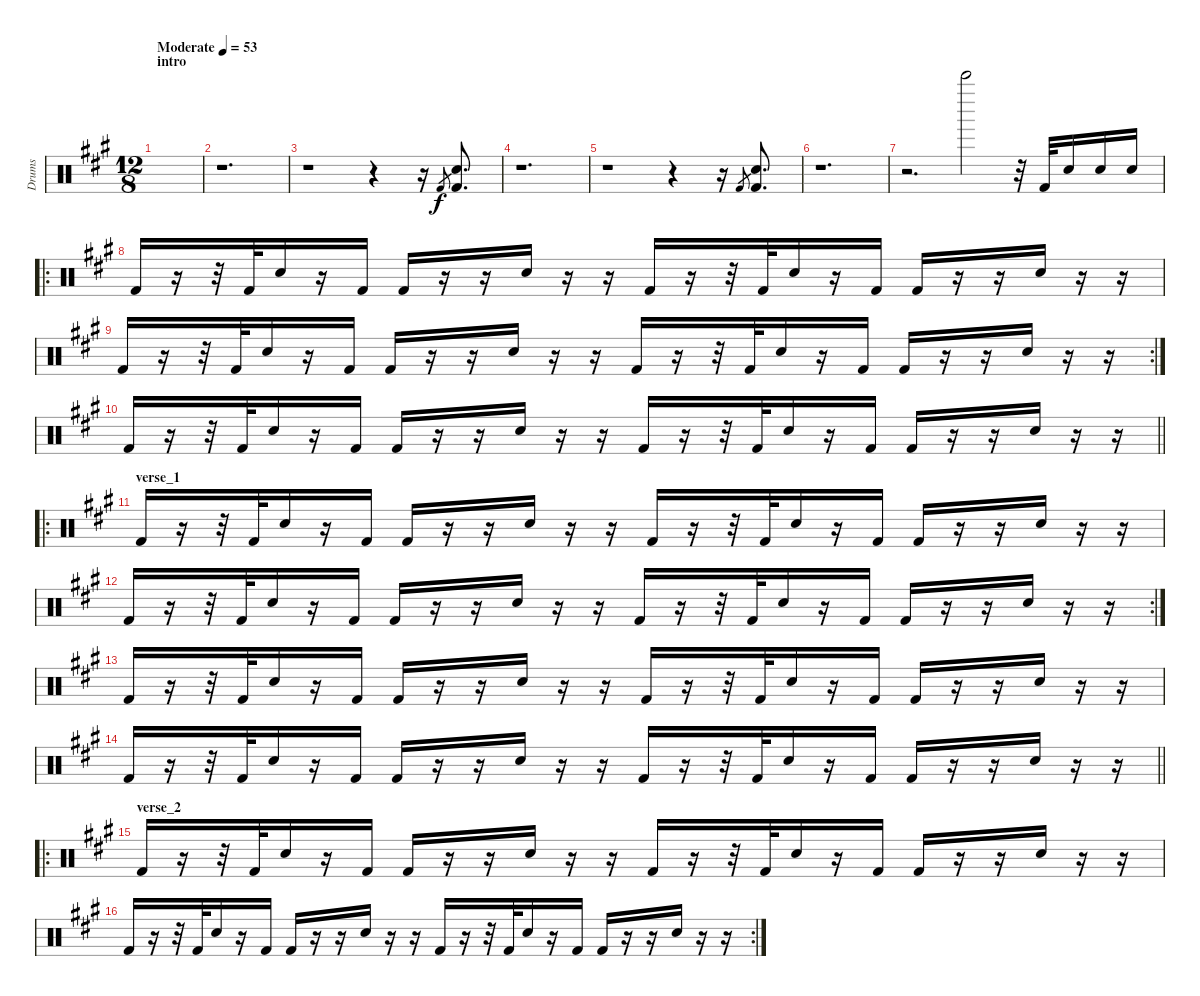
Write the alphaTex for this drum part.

\track ("Drums" "Drums") {instrument percussion}
\staff {score}
\articulation defaults
\ts (12 8)
\section ("" "intro")
\tempo (53 "Moderate")
\clef neutral
\ks f#minor
|
r.1{d} |
r.1 r.4 r.16 "Kick (hit) 2".8{gr} ("Snare (hit) 2" "Kick (hit) 2").8{d} |
r.1{d} |
r.1 r.4 r.16 "Kick (hit) 2".8{gr} ("Snare (hit) 2" "Kick (hit) 2").8{d} |
r.1{d} |
r.2{d} "Bell Tree (hit)".2 r.32 "Kick (hit) 2".32 "Snare (hit) 2".16 "Snare (hit) 2".16 "Snare (hit) 2".16 |
\ro "Kick (hit) 2".16
r.16 r.32 "Kick (hit) 2".32 "Snare (hit) 2".16 r.16 "Kick (hit) 2".16 "Kick (hit) 2".16 r.16 r.16 "Snare (hit) 2".16 r.16 r.16 "Kick (hit) 2".16 r.16 r.32 "Kick (hit) 2".32 "Snare (hit) 2".16 r.16 "Kick (hit) 2".16 "Kick (hit) 2".16 r.16 r.16 "Snare (hit) 2".16 r.16 r.16 |
\rc 2 "Kick (hit) 2".16
r.16 r.32 "Kick (hit) 2".32 "Snare (hit) 2".16 r.16 "Kick (hit) 2".16 "Kick (hit) 2".16 r.16 r.16 "Snare (hit) 2".16 r.16 r.16 "Kick (hit) 2".16 r.16 r.32 "Kick (hit) 2".32 "Snare (hit) 2".16 r.16 "Kick (hit) 2".16 "Kick (hit) 2".16 r.16 r.16 "Snare (hit) 2".16 r.16 r.16 |
\barLineRight lightlight "Kick (hit) 2".16
r.16 r.32 "Kick (hit) 2".32 "Snare (hit) 2".16 r.16 "Kick (hit) 2".16 "Kick (hit) 2".16 r.16 r.16 "Snare (hit) 2".16 r.16 r.16 "Kick (hit) 2".16 r.16 r.32 "Kick (hit) 2".32 "Snare (hit) 2".16 r.16 "Kick (hit) 2".16 "Kick (hit) 2".16 r.16 r.16 "Snare (hit) 2".16 r.16 r.16 |
\ro
\section ("" "verse_1")
"Kick (hit) 2".16 r.16 r.32 "Kick (hit) 2".32 "Snare (hit) 2".16 r.16 "Kick (hit) 2".16 "Kick (hit) 2".16 r.16 r.16 "Snare (hit) 2".16 r.16 r.16 "Kick (hit) 2".16 r.16 r.32 "Kick (hit) 2".32 "Snare (hit) 2".16 r.16 "Kick (hit) 2".16 "Kick (hit) 2".16 r.16 r.16 "Snare (hit) 2".16 r.16 r.16 |
\rc 2 "Kick (hit) 2".16
r.16 r.32 "Kick (hit) 2".32 "Snare (hit) 2".16 r.16 "Kick (hit) 2".16 "Kick (hit) 2".16 r.16 r.16 "Snare (hit) 2".16 r.16 r.16 "Kick (hit) 2".16 r.16 r.32 "Kick (hit) 2".32 "Snare (hit) 2".16 r.16 "Kick (hit) 2".16 "Kick (hit) 2".16 r.16 r.16 "Snare (hit) 2".16 r.16 r.16 |
"Kick (hit) 2".16 r.16 r.32 "Kick (hit) 2".32 "Snare (hit) 2".16 r.16 "Kick (hit) 2".16 "Kick (hit) 2".16 r.16 r.16 "Snare (hit) 2".16 r.16 r.16 "Kick (hit) 2".16 r.16 r.32 "Kick (hit) 2".32 "Snare (hit) 2".16 r.16 "Kick (hit) 2".16 "Kick (hit) 2".16 r.16 r.16 "Snare (hit) 2".16 r.16 r.16 |
\barLineRight lightlight "Kick (hit) 2".16
r.16 r.32 "Kick (hit) 2".32 "Snare (hit) 2".16 r.16 "Kick (hit) 2".16 "Kick (hit) 2".16 r.16 r.16 "Snare (hit) 2".16 r.16 r.16 "Kick (hit) 2".16 r.16 r.32 "Kick (hit) 2".32 "Snare (hit) 2".16 r.16 "Kick (hit) 2".16 "Kick (hit) 2".16 r.16 r.16 "Snare (hit) 2".16 r.16 r.16 |
\ro
\section ("" "verse_2")
"Kick (hit) 2".16 r.16 r.32 "Kick (hit) 2".32 "Snare (hit) 2".16 r.16 "Kick (hit) 2".16 "Kick (hit) 2".16 r.16 r.16 "Snare (hit) 2".16 r.16 r.16 "Kick (hit) 2".16 r.16 r.32 "Kick (hit) 2".32 "Snare (hit) 2".16 r.16 "Kick (hit) 2".16 "Kick (hit) 2".16 r.16 r.16 "Snare (hit) 2".16 r.16 r.16 |
\rc 2 "Kick (hit) 2".16
r.16 r.32 "Kick (hit) 2".32 "Snare (hit) 2".16 r.16 "Kick (hit) 2".16 "Kick (hit) 2".16 r.16 r.16 "Snare (hit) 2".16 r.16 r.16 "Kick (hit) 2".16 r.16 r.32 "Kick (hit) 2".32 "Snare (hit) 2".16 r.16 "Kick (hit) 2".16 "Kick (hit) 2".16 r.16 r.16 "Snare (hit) 2".16 r.16 r.16
